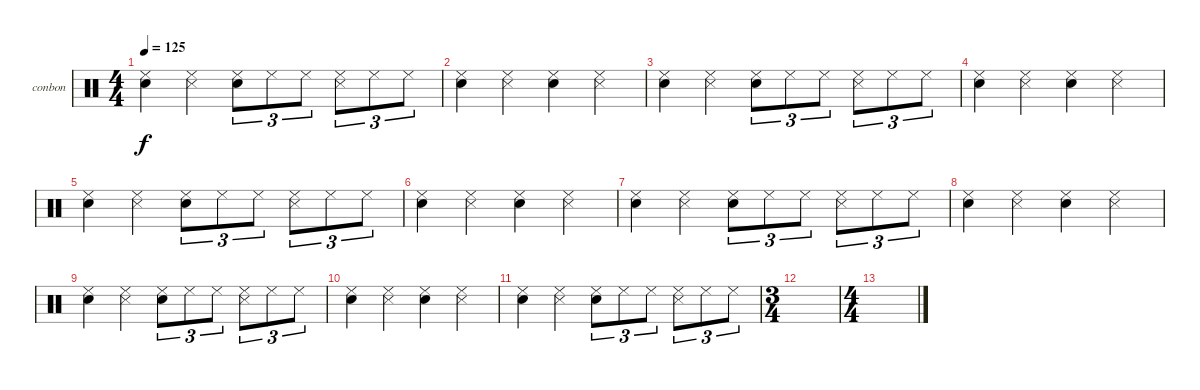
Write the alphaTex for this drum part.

\defaultSystemsLayout 4
\bracketExtendMode groupsimilarinstruments
\firstSystemTrackNameOrientation horizontal
\otherSystemsTrackNameOrientation horizontal
\track ("Bongos N Congas" "conbon") {instrument percussion}
\staff {score}
\articulation defaults
\ts (4 4)
\tempo 125
\clef neutral
\scale
0.333333
\ks c
("Cowbell low (tip)" "Snare (hit) 2").4{dy f} ("Cowbell low (tip)" "Snare (side stick) 3").4 ("Cowbell low (tip)" "Snare (hit) 2").8{tu (3 2)} "Cowbell low (tip)".8{tu (3 2)} "Cowbell low (tip)".8{tu (3 2)} ("Cowbell low (tip)" "Snare (side stick) 3").8{tu (3 2)} "Cowbell low (tip)".8{tu (3 2)} "Cowbell low (tip)".8{tu (3 2)} |
\scale
0.333333 ("Cowbell low (tip)" "Snare (hit) 2").4 ("Cowbell low (tip)" "Snare (side stick) 3").4 ("Cowbell low (tip)" "Snare (hit) 2").4 ("Cowbell low (tip)" "Snare (side stick) 3").4 |
\scale
0.333333 ("Cowbell low (tip)" "Snare (hit) 2").4 ("Cowbell low (tip)" "Snare (side stick) 3").4 ("Cowbell low (tip)" "Snare (hit) 2").8{tu (3 2)} "Cowbell low (tip)".8{tu (3 2)} "Cowbell low (tip)".8{tu (3 2)} ("Cowbell low (tip)" "Snare (side stick) 3").8{tu (3 2)} "Cowbell low (tip)".8{tu (3 2)} "Cowbell low (tip)".8{tu (3 2)} |
\scale
0.333333 ("Cowbell low (tip)" "Snare (hit) 2").4 ("Cowbell low (tip)" "Snare (side stick) 3").4 ("Cowbell low (tip)" "Snare (hit) 2").4 ("Cowbell low (tip)" "Snare (side stick) 3").4 |
\scale
0.333333 ("Cowbell low (tip)" "Snare (hit) 2").4 ("Cowbell low (tip)" "Snare (side stick) 3").4 ("Cowbell low (tip)" "Snare (hit) 2").8{tu (3 2)} "Cowbell low (tip)".8{tu (3 2)} "Cowbell low (tip)".8{tu (3 2)} ("Cowbell low (tip)" "Snare (side stick) 3").8{tu (3 2)} "Cowbell low (tip)".8{tu (3 2)} "Cowbell low (tip)".8{tu (3 2)} |
\scale
0.333333 ("Cowbell low (tip)" "Snare (hit) 2").4 ("Cowbell low (tip)" "Snare (side stick) 3").4 ("Cowbell low (tip)" "Snare (hit) 2").4 ("Cowbell low (tip)" "Snare (side stick) 3").4 |
\scale
0.333333 ("Cowbell low (tip)" "Snare (hit) 2").4 ("Cowbell low (tip)" "Snare (side stick) 3").4 ("Cowbell low (tip)" "Snare (hit) 2").8{tu (3 2)} "Cowbell low (tip)".8{tu (3 2)} "Cowbell low (tip)".8{tu (3 2)} ("Cowbell low (tip)" "Snare (side stick) 3").8{tu (3 2)} "Cowbell low (tip)".8{tu (3 2)} "Cowbell low (tip)".8{tu (3 2)} |
\scale
0.333333 ("Cowbell low (tip)" "Snare (hit) 2").4 ("Cowbell low (tip)" "Snare (side stick) 3").4 ("Cowbell low (tip)" "Snare (hit) 2").4 ("Cowbell low (tip)" "Snare (side stick) 3").4 |
\scale
0.333333 ("Cowbell low (tip)" "Snare (hit) 2").4 ("Cowbell low (tip)" "Snare (side stick) 3").4 ("Cowbell low (tip)" "Snare (hit) 2").8{tu (3 2)} "Cowbell low (tip)".8{tu (3 2)} "Cowbell low (tip)".8{tu (3 2)} ("Cowbell low (tip)" "Snare (side stick) 3").8{tu (3 2)} "Cowbell low (tip)".8{tu (3 2)} "Cowbell low (tip)".8{tu (3 2)} |
\scale
0.262911 ("Cowbell low (tip)" "Snare (hit) 2").4 ("Cowbell low (tip)" "Snare (side stick) 3").4 ("Cowbell low (tip)" "Snare (hit) 2").4 ("Cowbell low (tip)" "Snare (side stick) 3").4 |
\scale
0.262911 ("Cowbell low (tip)" "Snare (hit) 2").4 ("Cowbell low (tip)" "Snare (side stick) 3").4 ("Cowbell low (tip)" "Snare (hit) 2").8{tu (3 2)} "Cowbell low (tip)".8{tu (3 2)} "Cowbell low (tip)".8{tu (3 2)} ("Cowbell low (tip)" "Snare (side stick) 3").8{tu (3 2)} "Cowbell low (tip)".8{tu (3 2)} "Cowbell low (tip)".8{tu (3 2)} |
\ts (3 4)
\scale
0.474178 |
\ts (4 4)
\scale
0.474178 |
\scale
0.262911 |
\scale
0.262911 |
\scale
0.333333
